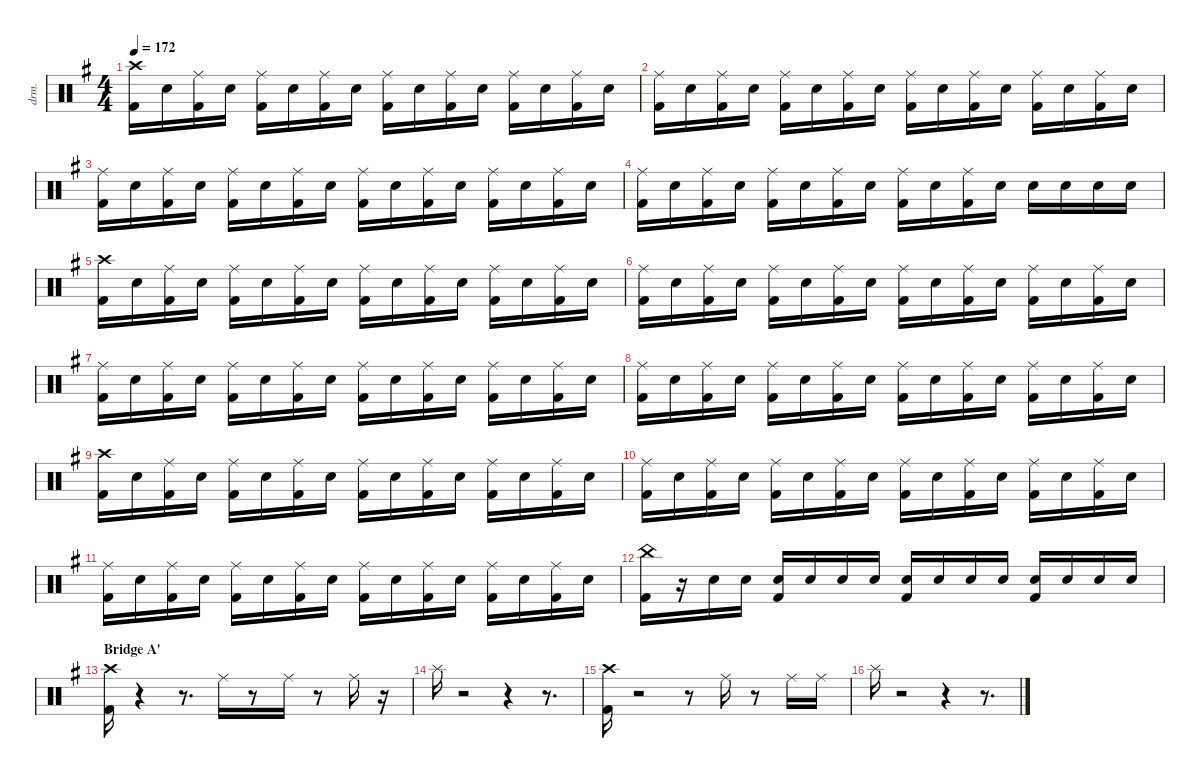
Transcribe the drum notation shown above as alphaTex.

\defaultSystemsLayout 4
\hideDynamics
\bracketExtendMode nobrackets
\otherSystemsTrackNameOrientation horizontal
\track ("Shinya" "drm.") {instrument percussion}
\staff {score}
\articulation defaults
\ts (4 4)
\tempo 172
\clef neutral
\ks eminor
("Kick (hit) 2"{acc forcenatural} "Crash high (hit)"{acc #}).16{dy fff} "Snare (hit) 2"{acc forcenatural}.16 ("Kick (hit) 2"{acc forcenatural} "Ride (middle)"{acc #}).16 "Snare (hit) 2"{acc forcenatural}.16 ("Kick (hit) 2"{acc forcenatural} "Ride (middle)"{acc #}).16 "Snare (hit) 2"{acc forcenatural}.16 ("Kick (hit) 2"{acc forcenatural} "Ride (middle)"{acc #}).16 "Snare (hit) 2"{acc forcenatural}.16 ("Kick (hit) 2"{acc forcenatural} "Ride (middle)"{acc #}).16 "Snare (hit) 2"{acc forcenatural}.16 ("Kick (hit) 2"{acc forcenatural} "Ride (middle)"{acc #}).16 "Snare (hit) 2"{acc forcenatural}.16 ("Kick (hit) 2"{acc forcenatural} "Ride (middle)"{acc #}).16 "Snare (hit) 2"{acc forcenatural}.16 ("Kick (hit) 2"{acc forcenatural} "Ride (middle)"{acc #}).16 "Snare (hit) 2"{acc forcenatural}.16 |
("Kick (hit) 2"{acc forcenatural} "Ride (middle)"{acc #}).16 "Snare (hit) 2"{acc forcenatural}.16 ("Kick (hit) 2"{acc forcenatural} "Ride (middle)"{acc #}).16 "Snare (hit) 2"{acc forcenatural}.16 ("Kick (hit) 2"{acc forcenatural} "Ride (middle)"{acc #}).16 "Snare (hit) 2"{acc forcenatural}.16 ("Kick (hit) 2"{acc forcenatural} "Ride (middle)"{acc #}).16 "Snare (hit) 2"{acc forcenatural}.16 ("Kick (hit) 2"{acc forcenatural} "Ride (middle)"{acc #}).16 "Snare (hit) 2"{acc forcenatural}.16 ("Kick (hit) 2"{acc forcenatural} "Ride (middle)"{acc #}).16 "Snare (hit) 2"{acc forcenatural}.16 ("Kick (hit) 2"{acc forcenatural} "Ride (middle)"{acc #}).16 "Snare (hit) 2"{acc forcenatural}.16 ("Kick (hit) 2"{acc forcenatural} "Ride (middle)"{acc #}).16 "Snare (hit) 2"{acc forcenatural}.16 |
("Kick (hit) 2"{acc forcenatural} "Ride (middle)"{acc #}).16 "Snare (hit) 2"{acc forcenatural}.16 ("Kick (hit) 2"{acc forcenatural} "Ride (middle)"{acc #}).16 "Snare (hit) 2"{acc forcenatural}.16 ("Kick (hit) 2"{acc forcenatural} "Ride (middle)"{acc #}).16 "Snare (hit) 2"{acc forcenatural}.16 ("Kick (hit) 2"{acc forcenatural} "Ride (middle)"{acc #}).16 "Snare (hit) 2"{acc forcenatural}.16 ("Kick (hit) 2"{acc forcenatural} "Ride (middle)"{acc #}).16 "Snare (hit) 2"{acc forcenatural}.16 ("Kick (hit) 2"{acc forcenatural} "Ride (middle)"{acc #}).16 "Snare (hit) 2"{acc forcenatural}.16 ("Kick (hit) 2"{acc forcenatural} "Ride (middle)"{acc #}).16 "Snare (hit) 2"{acc forcenatural}.16 ("Kick (hit) 2"{acc forcenatural} "Ride (middle)"{acc #}).16 "Snare (hit) 2"{acc forcenatural}.16 |
("Kick (hit) 2"{acc forcenatural} "Ride (middle)"{acc #}).16 "Snare (hit) 2"{acc forcenatural}.16 ("Kick (hit) 2"{acc forcenatural} "Ride (middle)"{acc #}).16 "Snare (hit) 2"{acc forcenatural}.16 ("Kick (hit) 2"{acc forcenatural} "Ride (middle)"{acc #}).16 "Snare (hit) 2"{acc forcenatural}.16 ("Kick (hit) 2"{acc forcenatural} "Ride (middle)"{acc #}).16 "Snare (hit) 2"{acc forcenatural}.16 ("Kick (hit) 2"{acc forcenatural} "Ride (middle)"{acc #}).16 "Snare (hit) 2"{acc forcenatural}.16 ("Kick (hit) 2"{acc forcenatural} "Ride (middle)"{acc #}).16 "Snare (hit) 2"{acc forcenatural}.16 "Snare (hit) 2"{acc forcenatural}.16 "Snare (hit) 2"{acc forcenatural}.16 "Snare (hit) 2"{acc forcenatural}.16 "Snare (hit) 2"{acc forcenatural}.16 |
("Kick (hit) 2"{acc forcenatural} "Crash high (hit)"{acc #}).16 "Snare (hit) 2"{acc forcenatural}.16 ("Kick (hit) 2"{acc forcenatural} "Ride (middle)"{acc #}).16 "Snare (hit) 2"{acc forcenatural}.16 ("Kick (hit) 2"{acc forcenatural} "Ride (middle)"{acc #}).16 "Snare (hit) 2"{acc forcenatural}.16 ("Kick (hit) 2"{acc forcenatural} "Ride (middle)"{acc #}).16 "Snare (hit) 2"{acc forcenatural}.16 ("Kick (hit) 2"{acc forcenatural} "Ride (middle)"{acc #}).16 "Snare (hit) 2"{acc forcenatural}.16 ("Kick (hit) 2"{acc forcenatural} "Ride (middle)"{acc #}).16 "Snare (hit) 2"{acc forcenatural}.16 ("Kick (hit) 2"{acc forcenatural} "Ride (middle)"{acc #}).16 "Snare (hit) 2"{acc forcenatural}.16 ("Kick (hit) 2"{acc forcenatural} "Ride (middle)"{acc #}).16 "Snare (hit) 2"{acc forcenatural}.16 |
("Kick (hit) 2"{acc forcenatural} "Ride (middle)"{acc #}).16 "Snare (hit) 2"{acc forcenatural}.16 ("Kick (hit) 2"{acc forcenatural} "Ride (middle)"{acc #}).16 "Snare (hit) 2"{acc forcenatural}.16 ("Kick (hit) 2"{acc forcenatural} "Ride (middle)"{acc #}).16 "Snare (hit) 2"{acc forcenatural}.16 ("Kick (hit) 2"{acc forcenatural} "Ride (middle)"{acc #}).16 "Snare (hit) 2"{acc forcenatural}.16 ("Kick (hit) 2"{acc forcenatural} "Ride (middle)"{acc #}).16 "Snare (hit) 2"{acc forcenatural}.16 ("Kick (hit) 2"{acc forcenatural} "Ride (middle)"{acc #}).16 "Snare (hit) 2"{acc forcenatural}.16 ("Kick (hit) 2"{acc forcenatural} "Ride (middle)"{acc #}).16 "Snare (hit) 2"{acc forcenatural}.16 ("Kick (hit) 2"{acc forcenatural} "Ride (middle)"{acc #}).16 "Snare (hit) 2"{acc forcenatural}.16 |
("Kick (hit) 2"{acc forcenatural} "Ride (middle)"{acc #}).16 "Snare (hit) 2"{acc forcenatural}.16 ("Kick (hit) 2"{acc forcenatural} "Ride (middle)"{acc #}).16 "Snare (hit) 2"{acc forcenatural}.16 ("Kick (hit) 2"{acc forcenatural} "Ride (middle)"{acc #}).16 "Snare (hit) 2"{acc forcenatural}.16 ("Kick (hit) 2"{acc forcenatural} "Ride (middle)"{acc #}).16 "Snare (hit) 2"{acc forcenatural}.16 ("Kick (hit) 2"{acc forcenatural} "Ride (middle)"{acc #}).16 "Snare (hit) 2"{acc forcenatural}.16 ("Kick (hit) 2"{acc forcenatural} "Ride (middle)"{acc #}).16 "Snare (hit) 2"{acc forcenatural}.16 ("Kick (hit) 2"{acc forcenatural} "Ride (middle)"{acc #}).16 "Snare (hit) 2"{acc forcenatural}.16 ("Kick (hit) 2"{acc forcenatural} "Ride (middle)"{acc #}).16 "Snare (hit) 2"{acc forcenatural}.16 |
("Kick (hit) 2"{acc forcenatural} "Ride (middle)"{acc #}).16 "Snare (hit) 2"{acc forcenatural}.16 ("Kick (hit) 2"{acc forcenatural} "Ride (middle)"{acc #}).16 "Snare (hit) 2"{acc forcenatural}.16 ("Kick (hit) 2"{acc forcenatural} "Ride (middle)"{acc #}).16 "Snare (hit) 2"{acc forcenatural}.16 ("Kick (hit) 2"{acc forcenatural} "Ride (middle)"{acc #}).16 "Snare (hit) 2"{acc forcenatural}.16 ("Kick (hit) 2"{acc forcenatural} "Ride (middle)"{acc #}).16 "Snare (hit) 2"{acc forcenatural}.16 ("Kick (hit) 2"{acc forcenatural} "Ride (middle)"{acc #}).16 "Snare (hit) 2"{acc forcenatural}.16 ("Kick (hit) 2"{acc forcenatural} "Ride (middle)"{acc #}).16 "Snare (hit) 2"{acc forcenatural}.16 ("Kick (hit) 2"{acc forcenatural} "Ride (middle)"{acc #}).16 "Snare (hit) 2"{acc forcenatural}.16 |
("Kick (hit) 2"{acc forcenatural} "Crash high (hit)"{acc #}).16 "Snare (hit) 2"{acc forcenatural}.16 ("Kick (hit) 2"{acc forcenatural} "Ride (middle)"{acc #}).16 "Snare (hit) 2"{acc forcenatural}.16 ("Kick (hit) 2"{acc forcenatural} "Ride (middle)"{acc #}).16 "Snare (hit) 2"{acc forcenatural}.16 ("Kick (hit) 2"{acc forcenatural} "Ride (middle)"{acc #}).16 "Snare (hit) 2"{acc forcenatural}.16 ("Kick (hit) 2"{acc forcenatural} "Ride (middle)"{acc #}).16 "Snare (hit) 2"{acc forcenatural}.16 ("Kick (hit) 2"{acc forcenatural} "Ride (middle)"{acc #}).16 "Snare (hit) 2"{acc forcenatural}.16 ("Kick (hit) 2"{acc forcenatural} "Ride (middle)"{acc #}).16 "Snare (hit) 2"{acc forcenatural}.16 ("Kick (hit) 2"{acc forcenatural} "Ride (middle)"{acc #}).16 "Snare (hit) 2"{acc forcenatural}.16 |
("Kick (hit) 2"{acc forcenatural} "Ride (middle)"{acc #}).16 "Snare (hit) 2"{acc forcenatural}.16 ("Kick (hit) 2"{acc forcenatural} "Ride (middle)"{acc #}).16 "Snare (hit) 2"{acc forcenatural}.16 ("Kick (hit) 2"{acc forcenatural} "Ride (middle)"{acc #}).16 "Snare (hit) 2"{acc forcenatural}.16 ("Kick (hit) 2"{acc forcenatural} "Ride (middle)"{acc #}).16 "Snare (hit) 2"{acc forcenatural}.16 ("Kick (hit) 2"{acc forcenatural} "Ride (middle)"{acc #}).16 "Snare (hit) 2"{acc forcenatural}.16 ("Kick (hit) 2"{acc forcenatural} "Ride (middle)"{acc #}).16 "Snare (hit) 2"{acc forcenatural}.16 ("Kick (hit) 2"{acc forcenatural} "Ride (middle)"{acc #}).16 "Snare (hit) 2"{acc forcenatural}.16 ("Kick (hit) 2"{acc forcenatural} "Ride (middle)"{acc #}).16 "Snare (hit) 2"{acc forcenatural}.16 |
("Kick (hit) 2"{acc forcenatural} "Ride (middle)"{acc #}).16 "Snare (hit) 2"{acc forcenatural}.16 ("Kick (hit) 2"{acc forcenatural} "Ride (middle)"{acc #}).16 "Snare (hit) 2"{acc forcenatural}.16 ("Kick (hit) 2"{acc forcenatural} "Ride (middle)"{acc #}).16 "Snare (hit) 2"{acc forcenatural}.16 ("Kick (hit) 2"{acc forcenatural} "Ride (middle)"{acc #}).16 "Snare (hit) 2"{acc forcenatural}.16 ("Kick (hit) 2"{acc forcenatural} "Ride (middle)"{acc #}).16 "Snare (hit) 2"{acc forcenatural}.16 ("Kick (hit) 2"{acc forcenatural} "Ride (middle)"{acc #}).16 "Snare (hit) 2"{acc forcenatural}.16 ("Kick (hit) 2"{acc forcenatural} "Ride (middle)"{acc #}).16 "Snare (hit) 2"{acc forcenatural}.16 ("Kick (hit) 2"{acc forcenatural} "Ride (middle)"{acc #}).16 "Snare (hit) 2"{acc forcenatural}.16 |
("Kick (hit) 2"{acc forcenatural} "China (hit)"{acc forcenatural}).16 r.16 "Snare (hit) 2"{acc forcenatural}.16 "Snare (hit) 2"{acc forcenatural}.16 ("Kick (hit) 2"{acc forcenatural} "Snare (hit) 2"{acc forcenatural}).16 "Snare (hit) 2"{acc forcenatural}.16 "Snare (hit) 2"{acc forcenatural}.16 "Snare (hit) 2"{acc forcenatural}.16 ("Kick (hit) 2"{acc forcenatural} "Snare (hit) 2"{acc forcenatural}).16 "Snare (hit) 2"{acc forcenatural}.16 "Snare (hit) 2"{acc forcenatural}.16 "Snare (hit) 2"{acc forcenatural}.16 ("Kick (hit) 2"{acc forcenatural} "Snare (hit) 2"{acc forcenatural}).16 "Snare (hit) 2"{acc forcenatural}.16 "Snare (hit) 2"{acc forcenatural}.16 "Snare (hit) 2"{acc forcenatural}.16 |
\section ("" "Bridge A'")
("Kick (hit) 2"{acc forcenatural} "Crash high (hit)"{acc #}).16 r.4 r.8{d} "Ride (middle)"{acc #}.16 r.8 "Ride (middle)"{acc #}.16 r.8 "Ride (middle)"{acc #}.16 r.16 |
"Splash (hit)"{acc forcenatural}.16 r.2 r.4 r.8{d} |
("Kick (hit) 2"{acc forcenatural} "Crash high (hit)"{acc #}).16 r.2 r.8 "Ride (middle)"{acc #}.16 r.8 "Ride (middle)"{acc #}.16 "Ride (middle)"{acc #}.16 |
"Splash (hit)"{acc forcenatural}.16 r.2 r.4 r.8{d}
